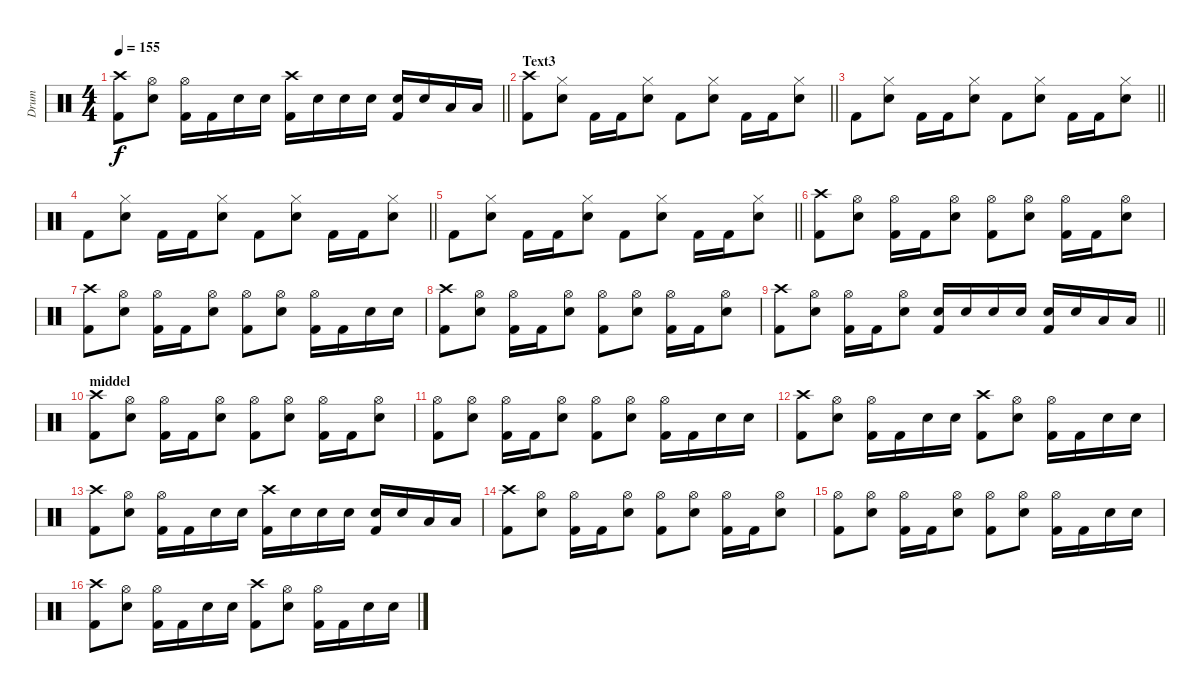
\track ("Drum" "Drum") {solo instrument percussion}
\staff {score}
\articulation defaults
\ts (4 4)
\tempo 155
\clef neutral
\barLineRight lightlight
\ks c
("Crash high (hit)" "Kick (hit) 2").8{dy f} ("Hi-Hat (open)" "Electric Snare (hit)").8 ("Kick (hit) 2" "Hi-Hat (open)").16 "Kick (hit) 2".16 "Electric Snare (hit)".16 "Electric Snare (hit)".16 ("Crash high (hit)" "Kick (hit) 2").16 "Electric Snare (hit)".16 "Electric Snare (hit)".16 "Electric Snare (hit)".16 ("Electric Snare (hit)" "Kick (hit) 2").16 "Electric Snare (hit)".16 "Low Tom (hit)".16 "Low Tom (hit)".16 |
\section ("" "Text3")
\barLineRight lightlight
("Crash high (hit)" "Kick (hit) 2").8 ("Hi-Hat (closed)" "Electric Snare (hit)").8 "Kick (hit) 2".16 "Kick (hit) 2".16 ("Hi-Hat (closed)" "Electric Snare (hit)").8 "Kick (hit) 2".8 ("Hi-Hat (closed)" "Electric Snare (hit)").8 "Kick (hit) 2".16 "Kick (hit) 2".16 ("Hi-Hat (closed)" "Electric Snare (hit)").8 |
\barLineRight lightlight "Kick (hit) 2".8
("Hi-Hat (closed)" "Electric Snare (hit)").8 "Kick (hit) 2".16 "Kick (hit) 2".16 ("Hi-Hat (closed)" "Electric Snare (hit)").8 "Kick (hit) 2".8 ("Hi-Hat (closed)" "Electric Snare (hit)").8 "Kick (hit) 2".16 "Kick (hit) 2".16 ("Hi-Hat (closed)" "Electric Snare (hit)").8 |
\barLineRight lightlight "Kick (hit) 2".8
("Hi-Hat (closed)" "Electric Snare (hit)").8 "Kick (hit) 2".16 "Kick (hit) 2".16 ("Hi-Hat (closed)" "Electric Snare (hit)").8 "Kick (hit) 2".8 ("Hi-Hat (closed)" "Electric Snare (hit)").8 "Kick (hit) 2".16 "Kick (hit) 2".16 ("Hi-Hat (closed)" "Electric Snare (hit)").8 |
\barLineRight lightlight "Kick (hit) 2".8
("Hi-Hat (closed)" "Electric Snare (hit)").8 "Kick (hit) 2".16 "Kick (hit) 2".16 ("Hi-Hat (closed)" "Electric Snare (hit)").8 "Kick (hit) 2".8 ("Hi-Hat (closed)" "Electric Snare (hit)").8 "Kick (hit) 2".16 "Kick (hit) 2".16 ("Hi-Hat (closed)" "Electric Snare (hit)").8 |
("Crash high (hit)" "Kick (hit) 2").8 ("Hi-Hat (open)" "Electric Snare (hit)").8 ("Hi-Hat (open)" "Kick (hit) 2").16 "Kick (hit) 2".16 ("Hi-Hat (open)" "Electric Snare (hit)").8 ("Hi-Hat (open)" "Kick (hit) 2").8 ("Hi-Hat (open)" "Electric Snare (hit)").8 ("Kick (hit) 2" "Hi-Hat (open)").16 "Kick (hit) 2".16 ("Hi-Hat (open)" "Electric Snare (hit)").8 |
("Crash high (hit)" "Kick (hit) 2").8 ("Hi-Hat (open)" "Electric Snare (hit)").8 ("Hi-Hat (open)" "Kick (hit) 2").16 "Kick (hit) 2".16 ("Hi-Hat (open)" "Electric Snare (hit)").8 ("Hi-Hat (open)" "Kick (hit) 2").8 ("Hi-Hat (open)" "Electric Snare (hit)").8 ("Kick (hit) 2" "Hi-Hat (open)").16 "Kick (hit) 2".16 "Electric Snare (hit)".16 "Electric Snare (hit)".16 |
("Crash high (hit)" "Kick (hit) 2").8 ("Hi-Hat (open)" "Electric Snare (hit)").8 ("Hi-Hat (open)" "Kick (hit) 2").16 "Kick (hit) 2".16 ("Hi-Hat (open)" "Electric Snare (hit)").8 ("Hi-Hat (open)" "Kick (hit) 2").8 ("Hi-Hat (open)" "Electric Snare (hit)").8 ("Kick (hit) 2" "Hi-Hat (open)").16 "Kick (hit) 2".16 ("Hi-Hat (open)" "Electric Snare (hit)").8 |
\barLineRight lightlight
("Crash high (hit)" "Kick (hit) 2").8 ("Hi-Hat (open)" "Electric Snare (hit)").8 ("Kick (hit) 2" "Hi-Hat (open)").16 "Kick (hit) 2".16 ("Hi-Hat (open)" "Electric Snare (hit)").8 ("Electric Snare (hit)" "Kick (hit) 2").16 "Electric Snare (hit)".16 "Electric Snare (hit)".16 "Electric Snare (hit)".16 ("Electric Snare (hit)" "Kick (hit) 2").16 "Electric Snare (hit)".16 "Low Tom (hit)".16 "Low Tom (hit)".16 |
\section ("" "middel")
("Crash high (hit)" "Kick (hit) 2").8 ("Hi-Hat (open)" "Electric Snare (hit)").8 ("Hi-Hat (open)" "Kick (hit) 2").16 "Kick (hit) 2".16 ("Hi-Hat (open)" "Electric Snare (hit)").8 ("Hi-Hat (open)" "Kick (hit) 2").8 ("Hi-Hat (open)" "Electric Snare (hit)").8 ("Kick (hit) 2" "Hi-Hat (open)").16 "Kick (hit) 2".16 ("Hi-Hat (open)" "Electric Snare (hit)").8 |
("Hi-Hat (open)" "Kick (hit) 2").8 ("Hi-Hat (open)" "Electric Snare (hit)").8 ("Hi-Hat (open)" "Kick (hit) 2").16 "Kick (hit) 2".16 ("Hi-Hat (open)" "Electric Snare (hit)").8 ("Hi-Hat (open)" "Kick (hit) 2").8 ("Hi-Hat (open)" "Electric Snare (hit)").8 ("Kick (hit) 2" "Hi-Hat (open)").16 "Kick (hit) 2".16 "Electric Snare (hit)".16 "Electric Snare (hit)".16 |
("Crash high (hit)" "Kick (hit) 2").8 ("Hi-Hat (open)" "Electric Snare (hit)").8 ("Kick (hit) 2" "Hi-Hat (open)").16 "Kick (hit) 2".16 "Electric Snare (hit)".16 "Electric Snare (hit)".16 ("Crash high (hit)" "Kick (hit) 2").8 ("Hi-Hat (open)" "Electric Snare (hit)").8 ("Kick (hit) 2" "Hi-Hat (open)").16 "Kick (hit) 2".16 "Electric Snare (hit)".16 "Electric Snare (hit)".16 |
("Crash high (hit)" "Kick (hit) 2").8 ("Hi-Hat (open)" "Electric Snare (hit)").8 ("Kick (hit) 2" "Hi-Hat (open)").16 "Kick (hit) 2".16 "Electric Snare (hit)".16 "Electric Snare (hit)".16 ("Crash high (hit)" "Kick (hit) 2").16 "Electric Snare (hit)".16 "Electric Snare (hit)".16 "Electric Snare (hit)".16 ("Electric Snare (hit)" "Kick (hit) 2").16 "Electric Snare (hit)".16 "Low Tom (hit)".16 "Low Tom (hit)".16 |
("Crash high (hit)" "Kick (hit) 2").8 ("Hi-Hat (open)" "Electric Snare (hit)").8 ("Hi-Hat (open)" "Kick (hit) 2").16 "Kick (hit) 2".16 ("Hi-Hat (open)" "Electric Snare (hit)").8 ("Hi-Hat (open)" "Kick (hit) 2").8 ("Hi-Hat (open)" "Electric Snare (hit)").8 ("Kick (hit) 2" "Hi-Hat (open)").16 "Kick (hit) 2".16 ("Hi-Hat (open)" "Electric Snare (hit)").8 |
("Hi-Hat (open)" "Kick (hit) 2").8 ("Hi-Hat (open)" "Electric Snare (hit)").8 ("Hi-Hat (open)" "Kick (hit) 2").16 "Kick (hit) 2".16 ("Hi-Hat (open)" "Electric Snare (hit)").8 ("Hi-Hat (open)" "Kick (hit) 2").8 ("Hi-Hat (open)" "Electric Snare (hit)").8 ("Kick (hit) 2" "Hi-Hat (open)").16 "Kick (hit) 2".16 "Electric Snare (hit)".16 "Electric Snare (hit)".16 |
("Crash high (hit)" "Kick (hit) 2").8 ("Hi-Hat (open)" "Electric Snare (hit)").8 ("Kick (hit) 2" "Hi-Hat (open)").16 "Kick (hit) 2".16 "Electric Snare (hit)".16 "Electric Snare (hit)".16 ("Crash high (hit)" "Kick (hit) 2").8 ("Hi-Hat (open)" "Electric Snare (hit)").8 ("Kick (hit) 2" "Hi-Hat (open)").16 "Kick (hit) 2".16 "Electric Snare (hit)".16 "Electric Snare (hit)".16
